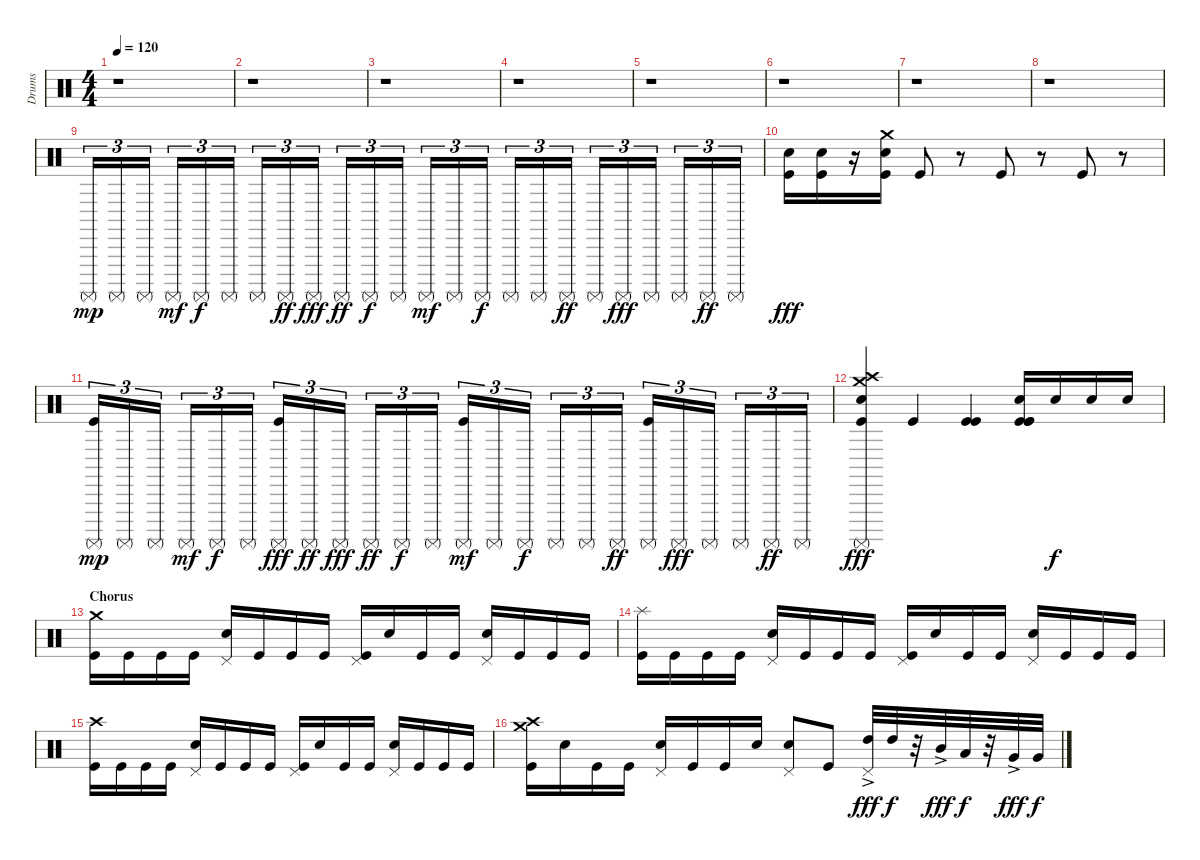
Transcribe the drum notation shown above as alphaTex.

\track ("Drums" "Drums") {instrument percussion}
\staff {score}
\articulation defaults
\ts (4 4)
\tempo 120
\clef neutral
\ks c
r.1{dy mp} |
r.1 |
r.1 |
r.1 |
r.1 |
r.1 |
r.1 |
r.1 |
"Surdo (mute)".16{tu (3 2)} "Surdo (mute)".16{tu (3 2)} "Surdo (mute)".16{tu (3 2)} "Surdo (mute)".16{tu (3 2) dy mf} "Surdo (mute)".16{tu (3 2) dy f} "Surdo (mute)".16{tu (3 2)} "Surdo (mute)".16{tu (3 2)} "Surdo (mute)".16{tu (3 2) dy ff} "Surdo (mute)".16{tu (3 2) dy fff} "Surdo (mute)".16{tu (3 2) dy ff} "Surdo (mute)".16{tu (3 2) dy f} "Surdo (mute)".16{tu (3 2)} "Surdo (mute)".16{tu (3 2) dy mf} "Surdo (mute)".16{tu (3 2)} "Surdo (mute)".16{tu (3 2) dy f} "Surdo (mute)".16{tu (3 2)} "Surdo (mute)".16{tu (3 2)} "Surdo (mute)".16{tu (3 2) dy ff} "Surdo (mute)".16{tu (3 2)} "Surdo (mute)".16{tu (3 2) dy fff} "Surdo (mute)".16{tu (3 2)} "Surdo (mute)".16{tu (3 2)} "Surdo (mute)".16{tu (3 2) dy ff} "Surdo (mute)".16{tu (3 2)} |
("Snare (hit) 2" "Kick (hit)").16{dy fff} ("Snare (hit) 2" "Kick (hit)").16 r.16 ("Crash medium (hit)" "Snare (hit) 2" "Kick (hit)").16 "Kick (hit)".8 r.8 "Kick (hit)".8 r.8 "Kick (hit)".8 r.8 |
("Kick (hit)" "Surdo (mute)").16{tu (3 2) dy mp} "Surdo (mute)".16{tu (3 2)} "Surdo (mute)".16{tu (3 2)} "Surdo (mute)".16{tu (3 2) dy mf} "Surdo (mute)".16{tu (3 2) dy f} "Surdo (mute)".16{tu (3 2)} ("Kick (hit)" "Surdo (mute)").16{tu (3 2) dy fff} "Surdo (mute)".16{tu (3 2) dy ff} "Surdo (mute)".16{tu (3 2) dy fff} "Surdo (mute)".16{tu (3 2) dy ff} "Surdo (mute)".16{tu (3 2) dy f} "Surdo (mute)".16{tu (3 2)} ("Kick (hit)" "Surdo (mute)").16{tu (3 2) dy mf} "Surdo (mute)".16{tu (3 2)} "Surdo (mute)".16{tu (3 2) dy f} "Surdo (mute)".16{tu (3 2)} "Surdo (mute)".16{tu (3 2)} "Surdo (mute)".16{tu (3 2) dy ff} ("Kick (hit)" "Surdo (mute)").16{tu (3 2)} "Surdo (mute)".16{tu (3 2) dy fff} "Surdo (mute)".16{tu (3 2)} "Surdo (mute)".16{tu (3 2)} "Surdo (mute)".16{tu (3 2) dy ff} "Surdo (mute)".16{tu (3 2)} |
("Crash medium (hit)" "Crash high (hit)" "Surdo (mute)" "Snare (hit) 2" "Kick (hit)").4{dy fff} "Kick (hit)".4 ("Kick (hit)" "Kick (hit)").4 ("Electric Snare (hit)" "Kick (hit)" "Kick (hit)" "Kick (hit)").16 "Electric Snare (hit)".16{dy f} "Electric Snare (hit)".16 "Electric Snare (hit)".16 |
\section ("" "Chorus")
("Crash medium (hit)" "Kick (hit)").16 "Kick (hit)".16 "Kick (hit)".16 "Kick (hit)".16 ("Pedal Hi-Hat (hit)" "Electric Snare (hit)").16 "Kick (hit)".16 "Kick (hit)".16 "Kick (hit)".16 ("Pedal Hi-Hat (hit)" "Kick (hit)").16 "Electric Snare (hit)".16 "Kick (hit)".16 "Kick (hit)".16 ("Pedal Hi-Hat (hit)" "Electric Snare (hit)").16 "Kick (hit)".16 "Kick (hit)".16 "Kick (hit)".16 |
("Splash (hit)" "Kick (hit)").16 "Kick (hit)".16 "Kick (hit)".16 "Kick (hit)".16 ("Pedal Hi-Hat (hit)" "Electric Snare (hit)").16 "Kick (hit)".16 "Kick (hit)".16 "Kick (hit)".16 ("Pedal Hi-Hat (hit)" "Kick (hit)").16 "Electric Snare (hit)".16 "Kick (hit)".16 "Kick (hit)".16 ("Pedal Hi-Hat (hit)" "Electric Snare (hit)").16 "Kick (hit)".16 "Kick (hit)".16 "Kick (hit)".16 |
("Crash high (hit)" "Kick (hit)").16 "Kick (hit)".16 "Kick (hit)".16 "Kick (hit)".16 ("Pedal Hi-Hat (hit)" "Electric Snare (hit)").16 "Kick (hit)".16 "Kick (hit)".16 "Kick (hit)".16 ("Pedal Hi-Hat (hit)" "Kick (hit)").16 "Electric Snare (hit)".16 "Kick (hit)".16 "Kick (hit)".16 ("Pedal Hi-Hat (hit)" "Electric Snare (hit)").16 "Kick (hit)".16 "Kick (hit)".16 "Kick (hit)".16 |
("Crash medium (hit)" "Crash high (hit)" "Kick (hit)").16 "Electric Snare (hit)".16 "Kick (hit)".16 "Kick (hit)".16 ("Pedal Hi-Hat (hit)" "Electric Snare (hit)").16 "Kick (hit)".16 "Kick (hit)".16 "Electric Snare (hit)".16 ("Pedal Hi-Hat (hit)" "Electric Snare (hit)").8 "Kick (hit)".8 ("Pedal Hi-Hat (hit)" "High Tom (hit)"{ac}).32{dy fff} "High Tom (hit)".32{dy f} r.32 "Mid Tom (hit)"{ac}.32{dy fff} "Low Tom (hit)".32{dy f} r.32 "Very Low Tom (hit)"{ac}.32{dy fff} "Very Low Tom (hit)".32{dy f}
